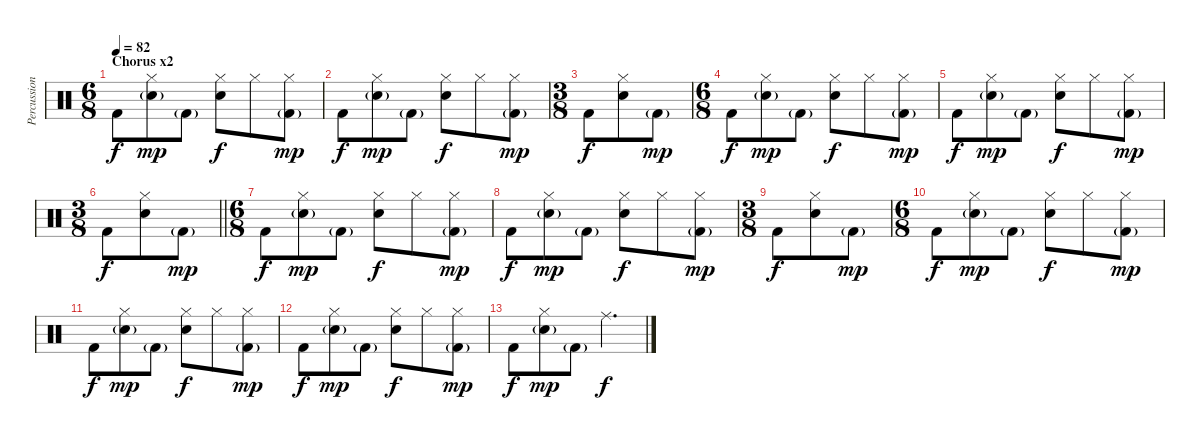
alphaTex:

\track ("Percussion" "Percussion") {instrument percussion}
\staff {score}
\articulation defaults
\ts (6 8)
\section ("" "Chorus x2")
\tempo 82
\clef neutral
\ks c "Kick (hit) 2".8{dy f}
("Hi-Hat (closed)" "Snare (hit) 2"{g}).8{dy mp} "Kick (hit) 2"{g}.8 ("Hi-Hat (closed)" "Snare (hit) 2").8{dy f} "Hi-Hat (closed)".8 ("Hi-Hat (closed)" "Kick (hit) 2"{g}).8{dy mp} |
"Kick (hit) 2".8{dy f} ("Hi-Hat (closed)" "Snare (hit) 2"{g}).8{dy mp} "Kick (hit) 2"{g}.8 ("Hi-Hat (closed)" "Snare (hit) 2").8{dy f} "Hi-Hat (closed)".8 ("Hi-Hat (closed)" "Kick (hit) 2"{g}).8{dy mp} |
\ts (3 8)
"Kick (hit) 2".8{dy f} ("Hi-Hat (closed)" "Snare (hit) 2").8 "Kick (hit) 2"{g}.8{dy mp} |
\ts (6 8)
"Kick (hit) 2".8{dy f} ("Hi-Hat (closed)" "Snare (hit) 2"{g}).8{dy mp} "Kick (hit) 2"{g}.8 ("Hi-Hat (closed)" "Snare (hit) 2").8{dy f} "Hi-Hat (closed)".8 ("Hi-Hat (closed)" "Kick (hit) 2"{g}).8{dy mp} |
"Kick (hit) 2".8{dy f} ("Hi-Hat (closed)" "Snare (hit) 2"{g}).8{dy mp} "Kick (hit) 2"{g}.8 ("Hi-Hat (closed)" "Snare (hit) 2").8{dy f} "Hi-Hat (closed)".8 ("Hi-Hat (closed)" "Kick (hit) 2"{g}).8{dy mp} |
\ts (3 8)
\barLineRight lightlight "Kick (hit) 2".8{dy f}
("Hi-Hat (closed)" "Snare (hit) 2").8 "Kick (hit) 2"{g}.8{dy mp} |
\ts (6 8)
\section ("" "")
"Kick (hit) 2".8{dy f} ("Hi-Hat (closed)" "Snare (hit) 2"{g}).8{dy mp} "Kick (hit) 2"{g}.8 ("Hi-Hat (closed)" "Snare (hit) 2").8{dy f} "Hi-Hat (closed)".8 ("Hi-Hat (closed)" "Kick (hit) 2"{g}).8{dy mp} |
"Kick (hit) 2".8{dy f} ("Hi-Hat (closed)" "Snare (hit) 2"{g}).8{dy mp} "Kick (hit) 2"{g}.8 ("Hi-Hat (closed)" "Snare (hit) 2").8{dy f} "Hi-Hat (closed)".8 ("Hi-Hat (closed)" "Kick (hit) 2"{g}).8{dy mp} |
\ts (3 8)
"Kick (hit) 2".8{dy f} ("Hi-Hat (closed)" "Snare (hit) 2").8 "Kick (hit) 2"{g}.8{dy mp} |
\ts (6 8)
"Kick (hit) 2".8{dy f} ("Hi-Hat (closed)" "Snare (hit) 2"{g}).8{dy mp} "Kick (hit) 2"{g}.8 ("Hi-Hat (closed)" "Snare (hit) 2").8{dy f} "Hi-Hat (closed)".8 ("Hi-Hat (closed)" "Kick (hit) 2"{g}).8{dy mp} |
"Kick (hit) 2".8{dy f} ("Hi-Hat (closed)" "Snare (hit) 2"{g}).8{dy mp} "Kick (hit) 2"{g}.8 ("Hi-Hat (closed)" "Snare (hit) 2").8{dy f} "Hi-Hat (closed)".8 ("Hi-Hat (closed)" "Kick (hit) 2"{g}).8{dy mp} |
"Kick (hit) 2".8{dy f} ("Hi-Hat (closed)" "Snare (hit) 2"{g}).8{dy mp} "Kick (hit) 2"{g}.8 ("Hi-Hat (closed)" "Snare (hit) 2").8{dy f} "Hi-Hat (closed)".8 ("Hi-Hat (closed)" "Kick (hit) 2"{g}).8{dy mp} |
"Kick (hit) 2".8{dy f} ("Hi-Hat (closed)" "Snare (hit) 2"{g}).8{dy mp} "Kick (hit) 2"{g}.8 "Ride (middle)".4{d dy f}
